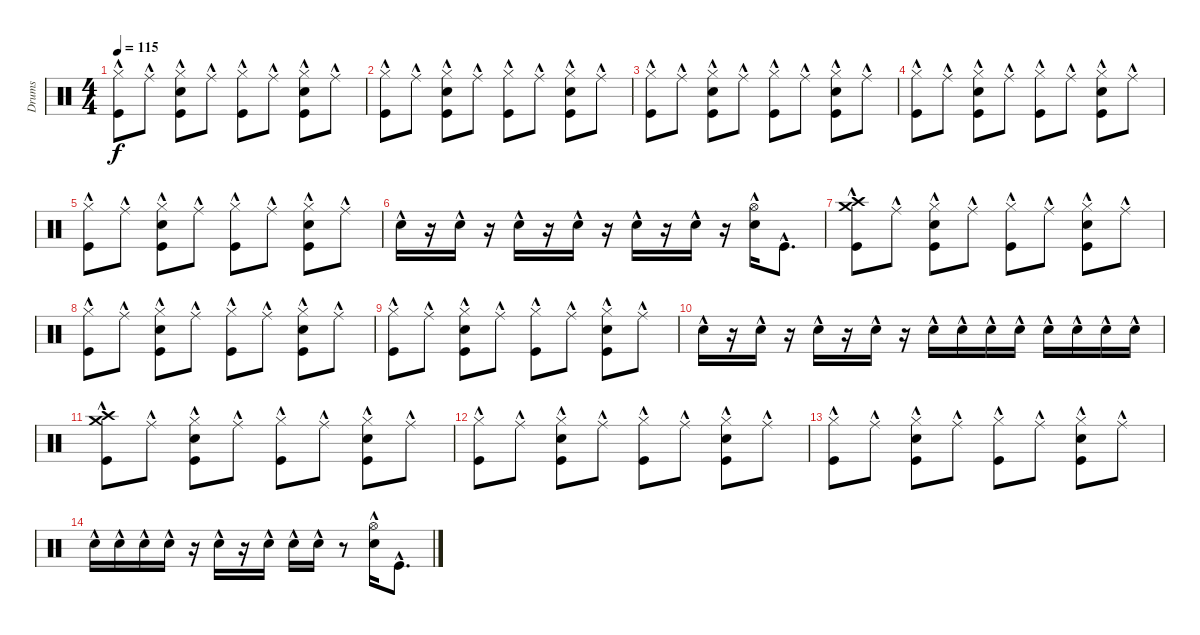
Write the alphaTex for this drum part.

\track ("Drums" "Drums") {instrument percussion}
\staff {score}
\articulation defaults
\ts (4 4)
\tempo 115
\clef neutral
\ks c
("Hi-Hat (closed)"{hac} "Kick (hit)"{hac}).8{dy f} "Ride (middle)"{hac}.8 ("Hi-Hat (closed)"{hac} "Snare (hit) 2"{hac} "Kick (hit)"{hac}).8 "Ride (middle)"{hac}.8 ("Hi-Hat (closed)"{hac} "Kick (hit)"{hac}).8 "Ride (middle)"{hac}.8 ("Hi-Hat (closed)"{hac} "Snare (hit) 2"{hac} "Kick (hit)"{hac}).8 "Ride (middle)"{hac}.8 |
("Hi-Hat (closed)"{hac} "Kick (hit)"{hac}).8 "Ride (middle)"{hac}.8 ("Hi-Hat (closed)"{hac} "Snare (hit) 2"{hac} "Kick (hit)"{hac}).8 "Ride (middle)"{hac}.8 ("Hi-Hat (closed)"{hac} "Kick (hit)"{hac}).8 "Ride (middle)"{hac}.8 ("Hi-Hat (closed)"{hac} "Snare (hit) 2"{hac} "Kick (hit)"{hac}).8 "Ride (middle)"{hac}.8 |
("Hi-Hat (closed)"{hac} "Kick (hit)"{hac}).8 "Ride (middle)"{hac}.8 ("Hi-Hat (closed)"{hac} "Snare (hit) 2"{hac} "Kick (hit)"{hac}).8 "Ride (middle)"{hac}.8 ("Hi-Hat (closed)"{hac} "Kick (hit)"{hac}).8 "Ride (middle)"{hac}.8 ("Hi-Hat (closed)"{hac} "Snare (hit) 2"{hac} "Kick (hit)"{hac}).8 "Ride (middle)"{hac}.8 |
("Hi-Hat (closed)"{hac} "Kick (hit)"{hac}).8 "Ride (middle)"{hac}.8 ("Hi-Hat (closed)"{hac} "Snare (hit) 2"{hac} "Kick (hit)"{hac}).8 "Ride (middle)"{hac}.8 ("Hi-Hat (closed)"{hac} "Kick (hit)"{hac}).8 "Ride (middle)"{hac}.8 ("Hi-Hat (closed)"{hac} "Snare (hit) 2"{hac} "Kick (hit)"{hac}).8 "Ride (middle)"{hac}.8 |
("Hi-Hat (closed)"{hac} "Kick (hit)"{hac}).8 "Ride (middle)"{hac}.8 ("Hi-Hat (closed)"{hac} "Snare (hit) 2"{hac} "Kick (hit)"{hac}).8 "Ride (middle)"{hac}.8 ("Hi-Hat (closed)"{hac} "Kick (hit)"{hac}).8 "Ride (middle)"{hac}.8 ("Hi-Hat (closed)"{hac} "Snare (hit) 2"{hac} "Kick (hit)"{hac}).8 "Ride (middle)"{hac}.8 |
"Snare (hit) 2"{hac}.16 r.16 "Snare (hit) 2"{hac}.16 r.16 "Snare (hit) 2"{hac}.16 r.16 "Snare (hit) 2"{hac}.16 r.16 "Snare (hit) 2"{hac}.16 r.16 "Snare (hit) 2"{hac}.16 r.16 ("Hi-Hat (open)"{hac} "Snare (hit) 2"{hac}).16 "Kick (hit)"{hac}.8{d} |
("Crash medium (hit)"{hac} "Crash high (hit)"{hac} "Kick (hit)"{hac}).8 "Ride (middle)"{hac}.8 ("Hi-Hat (closed)"{hac} "Snare (hit) 2"{hac} "Kick (hit)"{hac}).8 "Ride (middle)"{hac}.8 ("Hi-Hat (closed)"{hac} "Kick (hit)"{hac}).8 "Ride (middle)"{hac}.8 ("Hi-Hat (closed)"{hac} "Snare (hit) 2"{hac} "Kick (hit)"{hac}).8 "Ride (middle)"{hac}.8 |
("Hi-Hat (closed)"{hac} "Kick (hit)"{hac}).8 "Ride (middle)"{hac}.8 ("Hi-Hat (closed)"{hac} "Snare (hit) 2"{hac} "Kick (hit)"{hac}).8 "Ride (middle)"{hac}.8 ("Hi-Hat (closed)"{hac} "Kick (hit)"{hac}).8 "Ride (middle)"{hac}.8 ("Hi-Hat (closed)"{hac} "Snare (hit) 2"{hac} "Kick (hit)"{hac}).8 "Ride (middle)"{hac}.8 |
("Hi-Hat (closed)"{hac} "Kick (hit)"{hac}).8 "Ride (middle)"{hac}.8 ("Hi-Hat (closed)"{hac} "Snare (hit) 2"{hac} "Kick (hit)"{hac}).8 "Ride (middle)"{hac}.8 ("Hi-Hat (closed)"{hac} "Kick (hit)"{hac}).8 "Ride (middle)"{hac}.8 ("Hi-Hat (closed)"{hac} "Snare (hit) 2"{hac} "Kick (hit)"{hac}).8 "Ride (middle)"{hac}.8 |
"Snare (hit) 2"{hac}.16 r.16 "Snare (hit) 2"{hac}.16 r.16 "Snare (hit) 2"{hac}.16 r.16 "Snare (hit) 2"{hac}.16 r.16 "Snare (hit) 2"{hac}.16 "Snare (hit) 2"{hac}.16 "Snare (hit) 2"{hac}.16 "Snare (hit) 2"{hac}.16 "Snare (hit) 2"{hac}.16 "Snare (hit) 2"{hac}.16 "Snare (hit) 2"{hac}.16 "Snare (hit) 2"{hac}.16 |
("Crash medium (hit)"{hac} "Crash high (hit)"{hac} "Kick (hit)"{hac}).8 "Ride (middle)"{hac}.8 ("Hi-Hat (closed)"{hac} "Snare (hit) 2"{hac} "Kick (hit)"{hac}).8 "Ride (middle)"{hac}.8 ("Hi-Hat (closed)"{hac} "Kick (hit)"{hac}).8 "Ride (middle)"{hac}.8 ("Hi-Hat (closed)"{hac} "Snare (hit) 2"{hac} "Kick (hit)"{hac}).8 "Ride (middle)"{hac}.8 |
("Hi-Hat (closed)"{hac} "Kick (hit)"{hac}).8 "Ride (middle)"{hac}.8 ("Hi-Hat (closed)"{hac} "Snare (hit) 2"{hac} "Kick (hit)"{hac}).8 "Ride (middle)"{hac}.8 ("Hi-Hat (closed)"{hac} "Kick (hit)"{hac}).8 "Ride (middle)"{hac}.8 ("Hi-Hat (closed)"{hac} "Snare (hit) 2"{hac} "Kick (hit)"{hac}).8 "Ride (middle)"{hac}.8 |
("Hi-Hat (closed)"{hac} "Kick (hit)"{hac}).8 "Ride (middle)"{hac}.8 ("Hi-Hat (closed)"{hac} "Snare (hit) 2"{hac} "Kick (hit)"{hac}).8 "Ride (middle)"{hac}.8 ("Hi-Hat (closed)"{hac} "Kick (hit)"{hac}).8 "Ride (middle)"{hac}.8 ("Hi-Hat (closed)"{hac} "Snare (hit) 2"{hac} "Kick (hit)"{hac}).8 "Ride (middle)"{hac}.8 |
"Snare (hit) 2"{hac}.16 "Snare (hit) 2"{hac}.16 "Snare (hit) 2"{hac}.16 "Snare (hit) 2"{hac}.16 r.16 "Snare (hit) 2"{hac}.16 r.16 "Snare (hit) 2"{hac}.16 "Snare (hit) 2"{hac}.16 "Snare (hit) 2"{hac}.16 r.8 ("Hi-Hat (open)"{hac} "Snare (hit) 2"{hac}).16 "Kick (hit)"{hac}.8{d}
